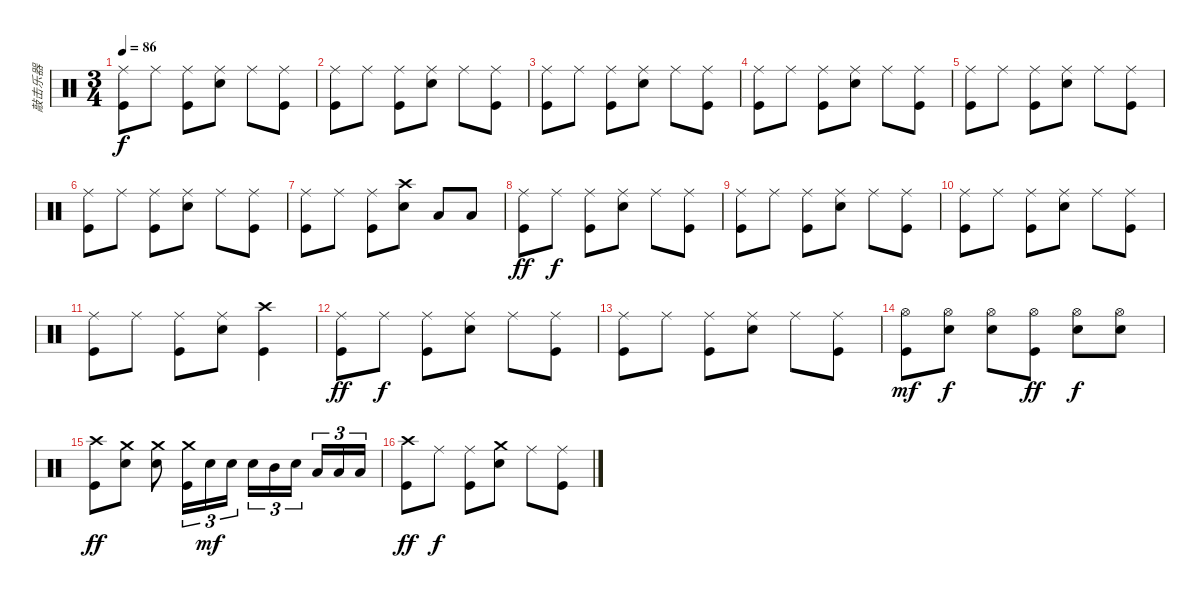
\track ("敲击乐器" "敲击乐器") {instrument percussion}
\staff {score}
\articulation defaults
\ts (3 4)
\tempo 86
\clef neutral
\ks c
("Ride (middle)" "Kick (hit)").8{dy f} "Ride (middle)".8 ("Ride (middle)" "Kick (hit)").8 ("Ride (middle)" "Snare (hit) 2").8 "Ride (middle)".8 ("Ride (middle)" "Kick (hit)").8 |
("Ride (middle)" "Kick (hit)").8 "Ride (middle)".8 ("Ride (middle)" "Kick (hit)").8 ("Ride (middle)" "Snare (hit) 2").8 "Ride (middle)".8 ("Ride (middle)" "Kick (hit)").8 |
("Ride (middle)" "Kick (hit)").8 "Ride (middle)".8 ("Ride (middle)" "Kick (hit)").8 ("Ride (middle)" "Snare (hit) 2").8 "Ride (middle)".8 ("Ride (middle)" "Kick (hit)").8 |
("Ride (middle)" "Kick (hit)").8 "Ride (middle)".8 ("Ride (middle)" "Kick (hit)").8 ("Ride (middle)" "Snare (hit) 2").8 "Ride (middle)".8 ("Ride (middle)" "Kick (hit)").8 |
("Ride (middle)" "Kick (hit)").8 "Ride (middle)".8 ("Ride (middle)" "Kick (hit)").8 ("Ride (middle)" "Snare (hit) 2").8 "Ride (middle)".8 ("Ride (middle)" "Kick (hit)").8 |
("Ride (middle)" "Kick (hit)").8 "Ride (middle)".8 ("Ride (middle)" "Kick (hit)").8 ("Ride (middle)" "Snare (hit) 2").8 "Ride (middle)".8 ("Ride (middle)" "Kick (hit)").8 |
("Ride (middle)" "Kick (hit)").8 "Ride (middle)".8 ("Ride (middle)" "Kick (hit)").8 ("Crash high (hit)" "Snare (hit) 2").8 "Low Tom (hit)".8 "Low Floor Tom (hit)".8 |
("Ride (middle)" "Kick (hit)").8{dy ff} "Ride (middle)".8{dy f} ("Ride (middle)" "Kick (hit)").8 ("Ride (middle)" "Snare (hit) 2").8 "Ride (middle)".8 ("Ride (middle)" "Kick (hit)").8 |
("Ride (middle)" "Kick (hit)").8 "Ride (middle)".8 ("Ride (middle)" "Kick (hit)").8 ("Ride (middle)" "Snare (hit) 2").8 "Ride (middle)".8 ("Ride (middle)" "Kick (hit)").8 |
("Ride (middle)" "Kick (hit)").8 "Ride (middle)".8 ("Ride (middle)" "Kick (hit)").8 ("Ride (middle)" "Snare (hit) 2").8 "Ride (middle)".8 ("Ride (middle)" "Kick (hit)").8 |
("Ride (middle)" "Kick (hit)").8 "Ride (middle)".8 ("Ride (middle)" "Kick (hit)").8 ("Ride (middle)" "Snare (hit) 2").8 ("Crash high (hit)" "Kick (hit)").4 |
("Ride (middle)" "Kick (hit)").8{dy ff} "Ride (middle)".8{dy f} ("Ride (middle)" "Kick (hit)").8 ("Ride (middle)" "Snare (hit) 2").8 "Ride (middle)".8 ("Ride (middle)" "Kick (hit)").8 |
("Ride (middle)" "Kick (hit)").8 "Ride (middle)".8 ("Ride (middle)" "Kick (hit)").8 ("Ride (middle)" "Snare (hit) 2").8 "Ride (middle)".8 ("Ride (middle)" "Kick (hit)").8 |
("Hi-Hat (open)" "Kick (hit)").8{dy mf} ("Hi-Hat (open)" "Snare (hit) 2").8{dy f} ("Hi-Hat (open)" "Snare (hit) 2").8 ("Hi-Hat (open)" "Kick (hit)").8{dy ff} ("Hi-Hat (open)" "Snare (hit) 2").8{dy f} ("Hi-Hat (open)" "Snare (hit) 2").8 |
("Crash high (hit)" "Kick (hit)").8{dy ff} ("Crash medium (hit)" "Snare (hit) 2").8 ("Crash medium (hit)" "Snare (hit) 2").8 ("Crash medium (hit)" "Kick (hit)").16{tu (3 2)} "Snare (hit) 2".16{tu (3 2) dy mf} "Snare (hit) 2".16{tu (3 2)} "Snare (hit) 2".16{tu (3 2)} "Mid Tom (hit)".16{tu (3 2)} "Snare (hit) 2".16{tu (3 2) beam splitsecondary} "Low Tom (hit)".16{tu (3 2)} "Low Floor Tom (hit)".16{tu (3 2)} "Low Floor Tom (hit)".16{tu (3 2)} |
("Crash high (hit)" "Kick (hit)").8{dy ff} "Ride (middle)".8{dy f} ("Ride (middle)" "Kick (hit)").8 ("Crash medium (hit)" "Snare (hit) 2").8 "Ride (middle)".8 ("Ride (middle)" "Kick (hit)").8
